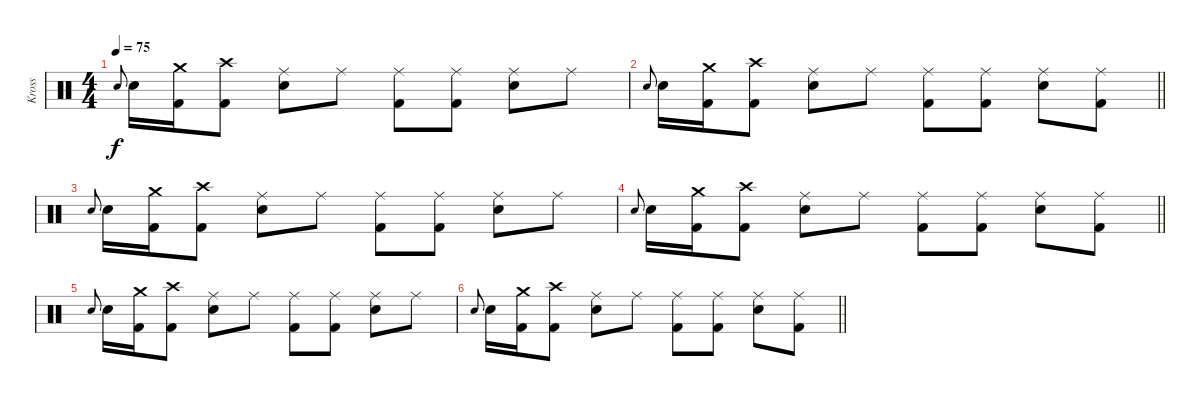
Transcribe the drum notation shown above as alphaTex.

\track ("Kross" "Kross") {instrument percussion}
\staff
\articulation defaults
\ts (4 4)
\tempo 75
\clef neutral
\ks c "Electric Snare (hit)".8{gr onbeat dy f} "Electric Snare (hit)".16{volume 12}
("Crash medium (hit)" "Kick (hit) 2").16 ("Crash high (hit)" "Kick (hit) 2").8 ("Ride (middle)" "Electric Snare (hit)").8 "Ride (middle)".8 ("Ride (middle)" "Kick (hit) 2").8 ("Ride (middle)" "Kick (hit) 2").8 ("Ride (middle)" "Electric Snare (hit)").8 "Ride (middle)".8 |
\barLineRight lightlight "Electric Snare (hit)".8{gr onbeat} "Electric Snare (hit)".16
("Crash medium (hit)" "Kick (hit) 2").16 ("Crash high (hit)" "Kick (hit) 2").8 ("Ride (middle)" "Electric Snare (hit)").8 "Ride (middle)".8 ("Ride (middle)" "Kick (hit) 2").8 ("Ride (middle)" "Kick (hit) 2").8 ("Ride (middle)" "Electric Snare (hit)").8 ("Ride (middle)" "Kick (hit) 2").8 |
"Electric Snare (hit)".8{gr onbeat} "Electric Snare (hit)".16{volume 0} ("Crash medium (hit)" "Kick (hit) 2").16 ("Crash high (hit)" "Kick (hit) 2").8 ("Ride (middle)" "Electric Snare (hit)").8 "Ride (middle)".8 ("Ride (middle)" "Kick (hit) 2").8 ("Ride (middle)" "Kick (hit) 2").8 ("Ride (middle)" "Electric Snare (hit)").8 "Ride (middle)".8 |
\barLineRight lightlight "Electric Snare (hit)".8{gr onbeat} "Electric Snare (hit)".16
("Crash medium (hit)" "Kick (hit) 2").16 ("Crash high (hit)" "Kick (hit) 2").8 ("Ride (middle)" "Electric Snare (hit)").8 "Ride (middle)".8 ("Ride (middle)" "Kick (hit) 2").8 ("Ride (middle)" "Kick (hit) 2").8 ("Ride (middle)" "Electric Snare (hit)").8 ("Ride (middle)" "Kick (hit) 2").8 |
"Electric Snare (hit)".8{gr onbeat} "Electric Snare (hit)".16 ("Crash medium (hit)" "Kick (hit) 2").16 ("Crash high (hit)" "Kick (hit) 2").8 ("Ride (middle)" "Electric Snare (hit)").8 "Ride (middle)".8 ("Ride (middle)" "Kick (hit) 2").8 ("Ride (middle)" "Kick (hit) 2").8 ("Ride (middle)" "Electric Snare (hit)").8 "Ride (middle)".8 |
\barLineRight lightlight "Electric Snare (hit)".8{gr onbeat} "Electric Snare (hit)".16
("Crash medium (hit)" "Kick (hit) 2").16 ("Crash high (hit)" "Kick (hit) 2").8 ("Ride (middle)" "Electric Snare (hit)").8 "Ride (middle)".8 ("Ride (middle)" "Kick (hit) 2").8 ("Ride (middle)" "Kick (hit) 2").8 ("Ride (middle)" "Electric Snare (hit)").8 ("Ride (middle)" "Kick (hit) 2").8
